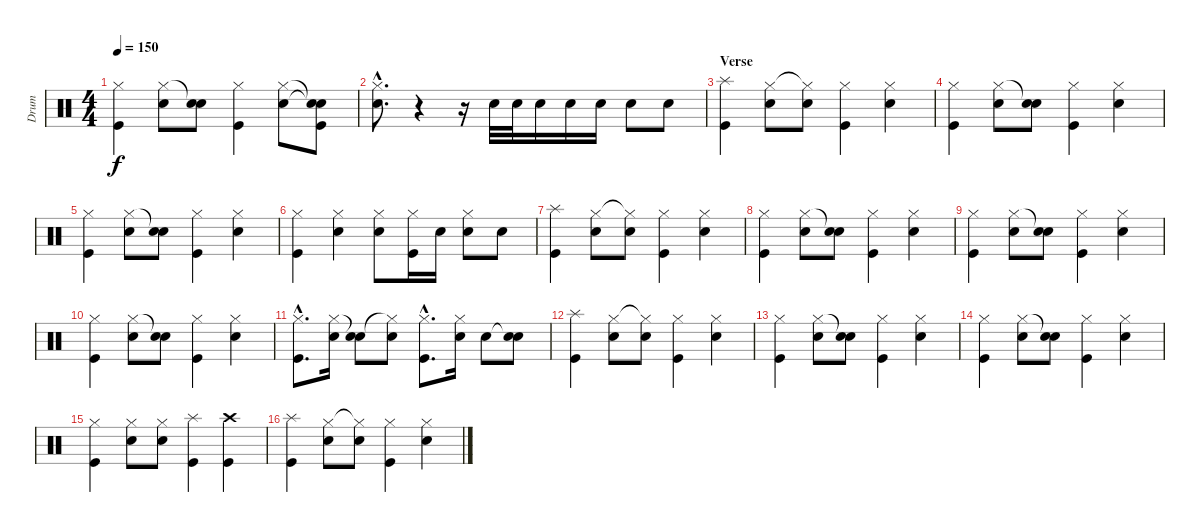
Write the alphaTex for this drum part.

\track ("Drum" "Drum") {instrument percussion}
\staff {score}
\articulation defaults
\ts (4 4)
\tempo 150
\clef neutral
\ks c
("Hi-Hat (closed)" "Kick (hit)").4{dy f} ("Hi-Hat (closed)" "Snare (hit) 2").8 ("Snare (hit)"{t} "Snare (hit) 2").8 ("Hi-Hat (closed)" "Kick (hit)").4 ("Hi-Hat (closed)" "Snare (hit) 2").8 ("Snare (hit)"{t} "Snare (hit)"{t} "Kick (hit)").8 |
("Hi-Hat (closed)"{hac} "Snare (hit) 2"{hac}).8{d} r.4 r.16 "Snare (hit) 2".32 "Snare (hit) 2".32 "Snare (hit) 2".16 "Snare (hit) 2".16 "Snare (hit) 2".16 "Snare (hit) 2".8 "Snare (hit) 2".8 |
\section ("" "Verse")
("Splash (hit)" "Kick (hit)").4 ("Hi-Hat (closed)" "Snare (hit) 2").8 ("Hi-Hat (closed)"{t} "Snare (hit) 2").8 ("Hi-Hat (closed)" "Kick (hit)").4 ("Hi-Hat (closed)" "Snare (hit) 2").4 |
("Hi-Hat (closed)" "Kick (hit)").4 ("Hi-Hat (closed)" "Snare (hit) 2").8 ("Snare (hit)"{t} "Snare (hit) 2").8 ("Hi-Hat (closed)" "Kick (hit)").4 ("Hi-Hat (closed)" "Snare (hit) 2").4 |
("Hi-Hat (closed)" "Kick (hit)").4 ("Hi-Hat (closed)" "Snare (hit) 2").8 ("Snare (hit)"{t} "Snare (hit) 2").8 ("Hi-Hat (closed)" "Kick (hit)").4 ("Hi-Hat (closed)" "Snare (hit) 2").4 |
("Hi-Hat (closed)" "Kick (hit)").4 ("Hi-Hat (closed)" "Snare (hit) 2").4 ("Hi-Hat (closed)" "Snare (hit) 2").8 ("Hi-Hat (closed)" "Kick (hit)").16 "Snare (hit) 2".16 ("Hi-Hat (closed)" "Snare (hit) 2").8 "Snare (hit) 2".8 |
("Splash (hit)" "Kick (hit)").4 ("Hi-Hat (closed)" "Snare (hit) 2").8 ("Hi-Hat (closed)"{t} "Snare (hit) 2").8 ("Hi-Hat (closed)" "Kick (hit)").4 ("Hi-Hat (closed)" "Snare (hit) 2").4 |
("Hi-Hat (closed)" "Kick (hit)").4 ("Hi-Hat (closed)" "Snare (hit) 2").8 ("Snare (hit)"{t} "Snare (hit) 2").8 ("Hi-Hat (closed)" "Kick (hit)").4 ("Hi-Hat (closed)" "Snare (hit) 2").4 |
("Hi-Hat (closed)" "Kick (hit)").4 ("Hi-Hat (closed)" "Snare (hit) 2").8 ("Snare (hit)"{t} "Snare (hit) 2").8 ("Hi-Hat (closed)" "Kick (hit)").4 ("Hi-Hat (closed)" "Snare (hit) 2").4 |
("Hi-Hat (closed)" "Kick (hit)").4 ("Hi-Hat (closed)" "Snare (hit) 2").8 ("Snare (hit)"{t} "Snare (hit) 2").8 ("Hi-Hat (closed)" "Kick (hit)").4 ("Hi-Hat (closed)" "Snare (hit) 2").4 |
("Hi-Hat (closed)"{hac} "Kick (hit)"{hac}).8{d} ("Hi-Hat (closed)" "Snare (hit) 2").16 ("Snare (hit)"{t} "Snare (hit) 2").8 ("Hi-Hat (closed)"{t} "Snare (hit) 2").8 ("Hi-Hat (closed)"{hac} "Kick (hit)"{hac}).8{d} ("Hi-Hat (closed)" "Snare (hit) 2").16 "Snare (hit) 2".8 ("Snare (hit)"{t} "Snare (hit) 2").8 |
("Splash (hit)" "Kick (hit)").4 ("Hi-Hat (closed)" "Snare (hit) 2").8 ("Hi-Hat (closed)"{t} "Snare (hit) 2").8 ("Hi-Hat (closed)" "Kick (hit)").4 ("Hi-Hat (closed)" "Snare (hit) 2").4 |
("Hi-Hat (closed)" "Kick (hit)").4 ("Hi-Hat (closed)" "Snare (hit) 2").8 ("Snare (hit)"{t} "Snare (hit) 2").8 ("Hi-Hat (closed)" "Kick (hit)").4 ("Hi-Hat (closed)" "Snare (hit) 2").4 |
("Hi-Hat (closed)" "Kick (hit)").4 ("Hi-Hat (closed)" "Snare (hit) 2").8 ("Snare (hit)"{t} "Snare (hit) 2").8 ("Hi-Hat (closed)" "Kick (hit)").4 ("Hi-Hat (closed)" "Snare (hit) 2").4 |
("Hi-Hat (closed)" "Kick (hit)").4 ("Hi-Hat (closed)" "Snare (hit) 2").8 ("Hi-Hat (closed)" "Snare (hit) 2").8 ("Splash (hit)" "Kick (hit)").4 ("Crash high (hit)" "Kick (hit)").4 |
("Splash (hit)" "Kick (hit)").4 ("Hi-Hat (closed)" "Snare (hit) 2").8 ("Hi-Hat (closed)"{t} "Snare (hit) 2").8 ("Hi-Hat (closed)" "Kick (hit)").4 ("Hi-Hat (closed)" "Snare (hit) 2").4
